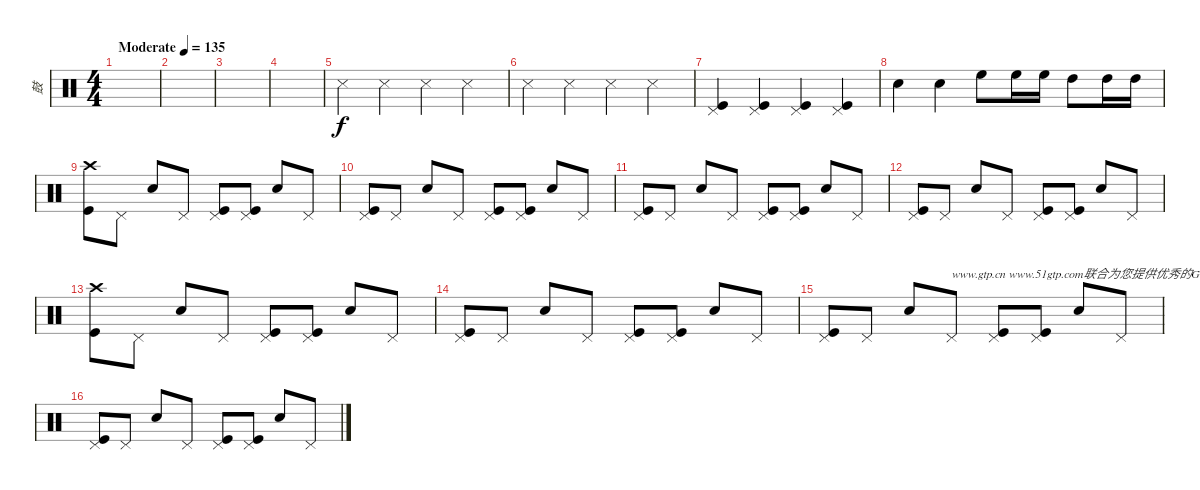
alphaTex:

\track ("鼓" "鼓") {instrument percussion}
\staff {score}
\articulation defaults
\ts (4 4)
\tempo (135 "Moderate")
\clef neutral
\ks c
|
|
|
|
"Snare (side stick) 3".4 "Snare (side stick) 3".4 "Snare (side stick) 3".4 "Snare (side stick) 3".4 |
"Snare (side stick) 3".4 "Snare (side stick) 3".4 "Snare (side stick) 3".4 "Snare (side stick) 3".4 |
("Pedal Hi-Hat (hit)" "Kick (hit)").4 ("Pedal Hi-Hat (hit)" "Kick (hit)").4 ("Pedal Hi-Hat (hit)" "Kick (hit)").4 ("Pedal Hi-Hat (hit)" "Kick (hit)").4 |
"Snare (hit) 2".4 "Snare (hit) 2".4 "High Floor Tom (hit)".8 "High Floor Tom (hit)".16 "High Floor Tom (hit)".16 "High Tom (hit)".8 "High Tom (hit)".16 "High Tom (hit)".16 |
("Crash high (hit)" "Kick (hit)").8 "Pedal Hi-Hat (hit)".8 "Snare (hit) 2".8 "Pedal Hi-Hat (hit)".8 ("Pedal Hi-Hat (hit)" "Kick (hit)").8 ("Pedal Hi-Hat (hit)" "Kick (hit)").8 "Snare (hit) 2".8 "Pedal Hi-Hat (hit)".8 |
("Pedal Hi-Hat (hit)" "Kick (hit)").8 "Pedal Hi-Hat (hit)".8 "Snare (hit) 2".8 "Pedal Hi-Hat (hit)".8 ("Pedal Hi-Hat (hit)" "Kick (hit)").8 ("Pedal Hi-Hat (hit)" "Kick (hit)").8 "Snare (hit) 2".8 "Pedal Hi-Hat (hit)".8 |
("Pedal Hi-Hat (hit)" "Kick (hit)").8 "Pedal Hi-Hat (hit)".8 "Snare (hit) 2".8 "Pedal Hi-Hat (hit)".8 ("Pedal Hi-Hat (hit)" "Kick (hit)").8 ("Pedal Hi-Hat (hit)" "Kick (hit)").8 "Snare (hit) 2".8 "Pedal Hi-Hat (hit)".8 |
("Pedal Hi-Hat (hit)" "Kick (hit)").8 "Pedal Hi-Hat (hit)".8 "Snare (hit) 2".8 "Pedal Hi-Hat (hit)".8 ("Pedal Hi-Hat (hit)" "Kick (hit)").8 ("Pedal Hi-Hat (hit)" "Kick (hit)").8 "Snare (hit) 2".8 "Pedal Hi-Hat (hit)".8 |
("Crash high (hit)" "Kick (hit)").8 "Pedal Hi-Hat (hit)".8 "Snare (hit) 2".8 "Pedal Hi-Hat (hit)".8 ("Pedal Hi-Hat (hit)" "Kick (hit)").8 ("Pedal Hi-Hat (hit)" "Kick (hit)").8 "Snare (hit) 2".8 "Pedal Hi-Hat (hit)".8 |
("Pedal Hi-Hat (hit)" "Kick (hit)").8 "Pedal Hi-Hat (hit)".8 "Snare (hit) 2".8 "Pedal Hi-Hat (hit)".8 ("Pedal Hi-Hat (hit)" "Kick (hit)").8 ("Pedal Hi-Hat (hit)" "Kick (hit)").8 "Snare (hit) 2".8 "Pedal Hi-Hat (hit)".8 |
("Pedal Hi-Hat (hit)" "Kick (hit)").8 "Pedal Hi-Hat (hit)".8 "Snare (hit) 2".8 "Pedal Hi-Hat (hit)".8{txt "www.gtp.cn www.51gtp.com联合为您提供优秀的GTP!"} ("Pedal Hi-Hat (hit)" "Kick (hit)").8 ("Pedal Hi-Hat (hit)" "Kick (hit)").8 "Snare (hit) 2".8 "Pedal Hi-Hat (hit)".8 |
("Pedal Hi-Hat (hit)" "Kick (hit)").8 "Pedal Hi-Hat (hit)".8 "Snare (hit) 2".8 "Pedal Hi-Hat (hit)".8 ("Pedal Hi-Hat (hit)" "Kick (hit)").8 ("Pedal Hi-Hat (hit)" "Kick (hit)").8 "Snare (hit) 2".8 "Pedal Hi-Hat (hit)".8
